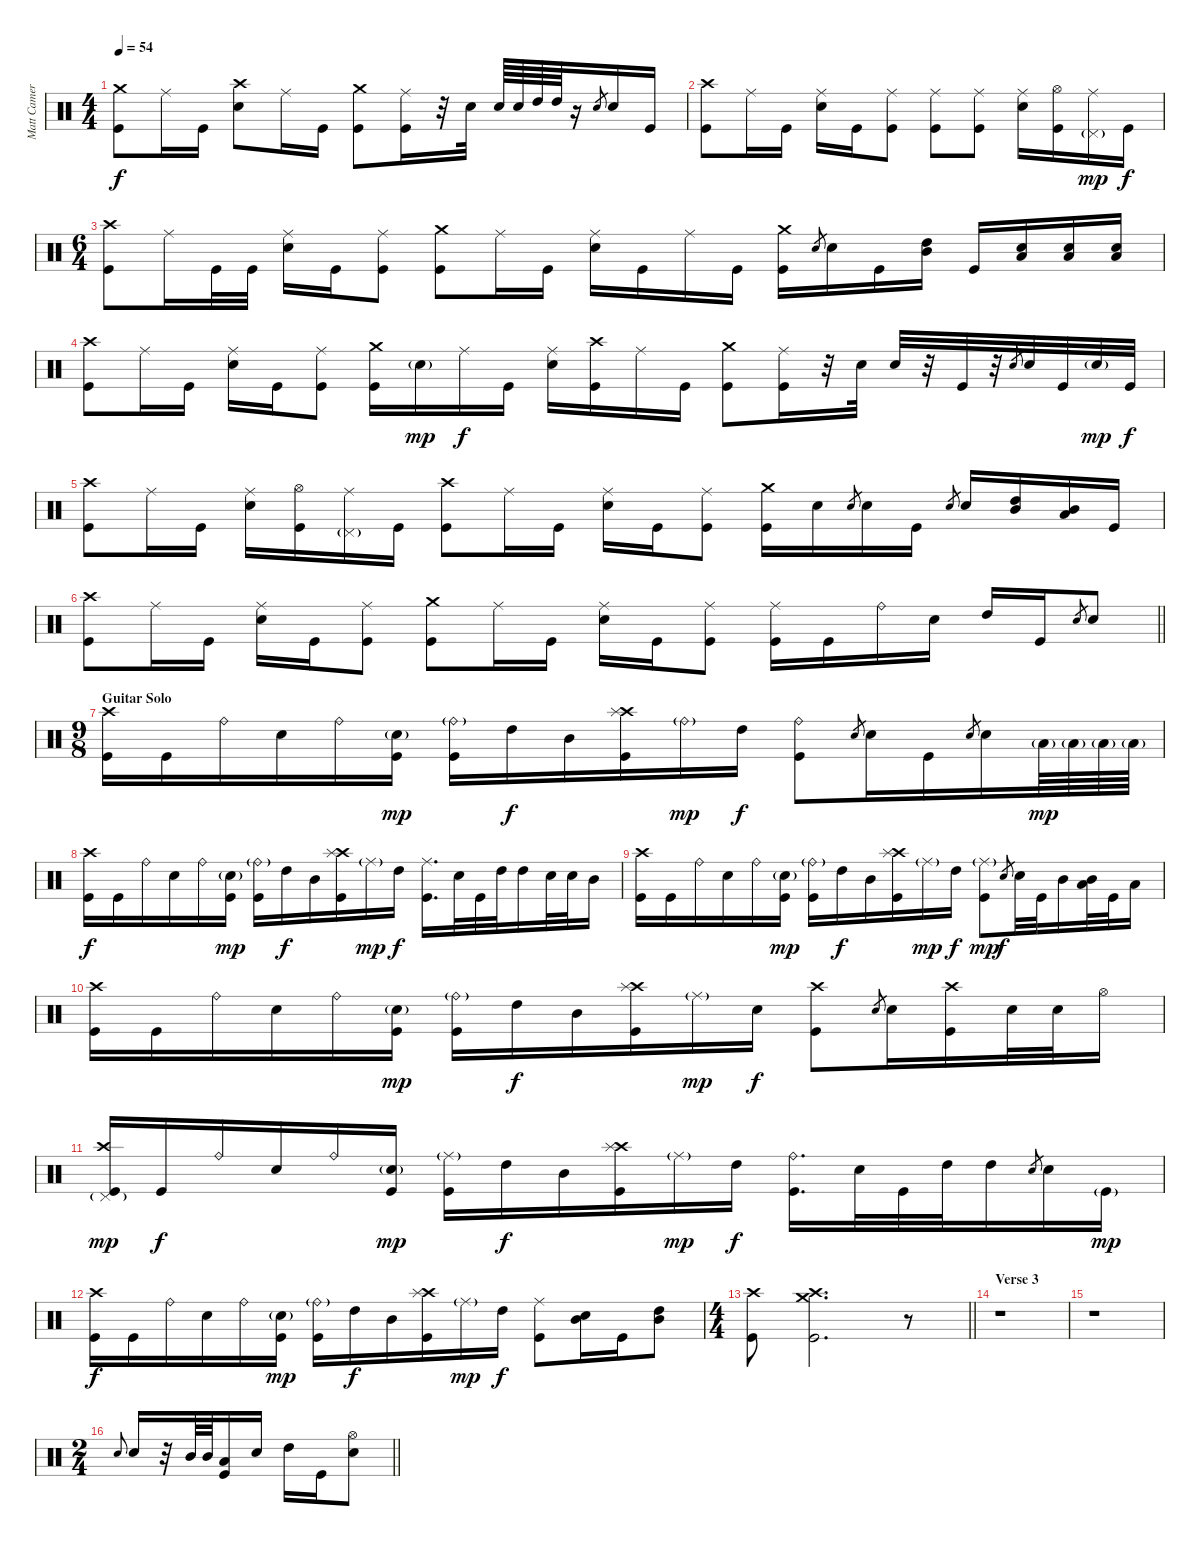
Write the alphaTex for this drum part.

\track ("Matt Cameron" "Matt Camer") {instrument percussion}
\staff {score}
\articulation defaults
\ts (4 4)
\tempo 54
\clef neutral
\ks c
("Crash medium (hit)" "Kick (hit)").8{dy f} "Ride (middle)".16 "Kick (hit)".16 ("Crash high (hit)" "Electric Snare (hit)").8 "Ride (middle)".16 "Kick (hit)".16 ("Crash medium (hit)" "Kick (hit)").8 ("Ride (middle)" "Kick (hit)").16 r.32 "Electric Snare (hit)".32 "Electric Snare (hit)".64 "Electric Snare (hit)".64 "High Tom (hit)".64 "High Tom (hit)".64 r.16 "Electric Snare (hit)".8{gr} "Electric Snare (hit)".16 "Kick (hit)".16 |
("Crash high (hit)" "Kick (hit)").8 "Ride (middle)".16 "Kick (hit)".16 ("Ride (middle)" "Electric Snare (hit)").16 "Kick (hit)".16 ("Ride (middle)" "Kick (hit)").8 ("Ride (middle)" "Kick (hit)").8 ("Ride (middle)" "Kick (hit)").8 ("Ride (middle)" "Electric Snare (hit)").16 ("Hi-Hat (open)" "Kick (hit)").16 ("Ride (middle)" "Pedal Hi-Hat (hit)"{g}).16{dy mp} "Kick (hit)".16{dy f} |
\ts (6 4)
("Crash high (hit)" "Kick (hit)").8 "Ride (middle)".16 "Kick (hit)".32 "Kick (hit)".32 ("Ride (middle)" "Electric Snare (hit)").16 "Kick (hit)".16 ("Ride (middle)" "Kick (hit)").8 ("Crash medium (hit)" "Kick (hit)").8 "Ride (middle)".16 "Kick (hit)".16 ("Ride (middle)" "Electric Snare (hit)").16 "Kick (hit)".16 "Ride (middle)".16 "Kick (hit)".16 ("Crash medium (hit)" "Kick (hit)").16 "Electric Snare (hit)".8{gr} "Electric Snare (hit)".16 "Kick (hit)".16 ("High Tom (hit)" "Mid Tom (hit)").16 "Kick (hit)".16 ("Electric Snare (hit)" "Low Floor Tom (hit)").16 ("Electric Snare (hit)" "Low Floor Tom (hit)").16 ("Electric Snare (hit)" "Low Floor Tom (hit)").16 |
("Crash high (hit)" "Kick (hit)").8 "Ride (middle)".16 "Kick (hit)".16 ("Ride (middle)" "Electric Snare (hit)").16 "Kick (hit)".16 ("Ride (middle)" "Kick (hit)").8 ("Crash medium (hit)" "Kick (hit)").16 "Electric Snare (hit)"{g}.16{dy mp} "Ride (middle)".16{dy f} "Kick (hit)".16 ("Ride (middle)" "Electric Snare (hit)").16 ("Crash high (hit)" "Kick (hit)").16 "Ride (middle)".16 "Kick (hit)".16 ("Crash medium (hit)" "Kick (hit)").8 ("Ride (middle)" "Kick (hit)").16 r.32 "Electric Snare (hit)".32 "Electric Snare (hit)".32 r.32 "Kick (hit)".32 r.32 "Electric Snare (hit)".8{gr} "Electric Snare (hit)".32 "Kick (hit)".32 "Electric Snare (hit)"{g}.32{dy mp} "Kick (hit)".32{dy f} |
("Crash high (hit)" "Kick (hit)").8 "Ride (middle)".16 "Kick (hit)".16 ("Ride (middle)" "Electric Snare (hit)").16 ("Hi-Hat (open)" "Kick (hit)").16 ("Ride (middle)" "Pedal Hi-Hat (hit)"{g}).16 "Kick (hit)".16 ("Crash high (hit)" "Kick (hit)").8 "Ride (middle)".16 "Kick (hit)".16 ("Ride (middle)" "Electric Snare (hit)").16 "Kick (hit)".16 ("Ride (middle)" "Kick (hit)").8 ("Crash medium (hit)" "Kick (hit)").16 "Electric Snare (hit)".16 "Electric Snare (hit)".8{gr} "Electric Snare (hit)".16 "Kick (hit)".16 "Electric Snare (hit)".8{gr} "Electric Snare (hit)".16 ("High Tom (hit)" "Mid Tom (hit)").16 ("Mid Tom (hit)" "Low Floor Tom (hit)").16 "Kick (hit)".16 |
\barLineRight lightlight
("Crash high (hit)" "Kick (hit)").8 "Ride (middle)".16 "Kick (hit)".16 ("Ride (middle)" "Electric Snare (hit)").16 "Kick (hit)".16 ("Ride (middle)" "Kick (hit)").8 ("Crash medium (hit)" "Kick (hit)").8 "Ride (middle)".16 "Kick (hit)".16 ("Ride (middle)" "Electric Snare (hit)").16 "Kick (hit)".16 ("Ride (middle)" "Kick (hit)").8 ("Ride (middle)" "Kick (hit)").16 "Kick (hit)".16 "Ride (bell)".16 "Electric Snare (hit)".16 "High Tom (hit)".16 "Kick (hit)".16 "Electric Snare (hit)".8{gr} "Electric Snare (hit)".8 |
\ts (9 8)
\section ("" "Guitar Solo")
("Crash high (hit)" "Kick (hit)").16 "Kick (hit)".16 "Ride (bell)".16 "Electric Snare (hit)".16 "Ride (bell)".16 ("Electric Snare (hit)"{g} "Kick (hit)").16{dy mp} ("Ride (bell)"{g} "Kick (hit)").16 "High Tom (hit)".16{dy f} "Mid Tom (hit)".16 ("Crash high (hit)" "Splash (hit)" "Kick (hit)").16 "Ride (bell)"{g}.16{dy mp} "High Tom (hit)".16{dy f} ("Ride (bell)" "Kick (hit)").8 "Electric Snare (hit)".8{gr} "Electric Snare (hit)".16 "Kick (hit)".16 "Electric Snare (hit)".8{gr} "Electric Snare (hit)".16 "Low Floor Tom (hit)"{g}.64{dy mp} "Low Floor Tom (hit)"{g}.64 "Low Floor Tom (hit)"{g}.64 "Low Floor Tom (hit)"{g}.64 |
("Crash high (hit)" "Kick (hit)").16{dy f} "Kick (hit)".16 "Ride (bell)".16 "Electric Snare (hit)".16 "Ride (bell)".16 ("Electric Snare (hit)"{g} "Kick (hit)").16{dy mp} ("Ride (bell)"{g} "Kick (hit)").16 "High Tom (hit)".16{dy f} "Mid Tom (hit)".16 ("Crash high (hit)" "Splash (hit)" "Kick (hit)").16 "Ride (middle)"{g}.16{dy mp} "High Tom (hit)".16{dy f} ("Ride (middle)" "Kick (hit)").16{d} "Electric Snare (hit)".32 "Kick (hit)".32 "High Tom (hit)".32 "High Tom (hit)".16 "Electric Snare (hit)".32 "Electric Snare (hit)".32 "Mid Tom (hit)".16 |
("Crash high (hit)" "Kick (hit)").16 "Kick (hit)".16 "Ride (bell)".16 "Electric Snare (hit)".16 "Ride (bell)".16 ("Electric Snare (hit)"{g} "Kick (hit)").16{dy mp} ("Ride (bell)"{g} "Kick (hit)").16 "High Tom (hit)".16{dy f} "Mid Tom (hit)".16 ("Crash high (hit)" "Splash (hit)" "Kick (hit)").16 "Ride (middle)"{g}.16{dy mp} "High Tom (hit)".16{dy f} ("Ride (middle)"{g} "Kick (hit)").8{dy mp} "Electric Snare (hit)".8{gr dy f} "Electric Snare (hit)".32 "Kick (hit)".32 "Mid Tom (hit)".16 ("Mid Tom (hit)" "Low Floor Tom (hit)").32 "Kick (hit)".32 "Low Floor Tom (hit)".16 |
("Crash high (hit)" "Kick (hit)").16 "Kick (hit)".16 "Ride (bell)".16 "Electric Snare (hit)".16 "Ride (bell)".16 ("Electric Snare (hit)"{g} "Kick (hit)").16{dy mp} ("Ride (bell)"{g} "Kick (hit)").16 "High Tom (hit)".16{dy f} "Mid Tom (hit)".16 ("Crash high (hit)" "Splash (hit)" "Kick (hit)").16 "Ride (middle)"{g}.16{dy mp} "Electric Snare (hit)".16{dy f} ("Crash high (hit)" "Kick (hit)").8 "Electric Snare (hit)".8{gr} "Electric Snare (hit)".16 ("Crash high (hit)" "Kick (hit)").16 "Electric Snare (hit)".32 "Electric Snare (hit)".32 "Hi-Hat (open)".16 |
("Crash high (hit)" "Pedal Hi-Hat (hit)"{g} "Kick (hit)").16{dy mp} "Kick (hit)".16{dy f} "Ride (bell)".16 "Electric Snare (hit)".16 "Ride (bell)".16 ("Electric Snare (hit)"{g} "Kick (hit)").16{dy mp} ("Ride (middle)"{g} "Kick (hit)").16 "High Tom (hit)".16{dy f} "Mid Tom (hit)".16 ("Crash high (hit)" "Splash (hit)" "Kick (hit)").16 "Ride (middle)"{g}.16{dy mp} "High Tom (hit)".16{dy f} ("Ride (bell)" "Kick (hit)").16{d} "Electric Snare (hit)".32 "Kick (hit)".32 "High Tom (hit)".32 "High Tom (hit)".16 "Electric Snare (hit)".8{gr} "Electric Snare (hit)".16 "Kick (hit)"{g}.16{dy mp} |
("Crash high (hit)" "Kick (hit)").16{dy f} "Kick (hit)".16 "Ride (bell)".16 "Electric Snare (hit)".16 "Ride (bell)".16 ("Electric Snare (hit)"{g} "Kick (hit)").16{dy mp} ("Ride (bell)"{g} "Kick (hit)").16 "High Tom (hit)".16{dy f} "Mid Tom (hit)".16 ("Crash high (hit)" "Splash (hit)" "Kick (hit)").16 "Ride (middle)"{g}.16{dy mp} "High Tom (hit)".16{dy f} ("Ride (middle)" "Kick (hit)").8 ("Electric Snare (hit)" "Mid Tom (hit)").16 "Kick (hit)".16 ("High Tom (hit)" "Mid Tom (hit)").8 |
\ts (4 4)
\barLineRight lightlight
("Crash high (hit)" "Kick (hit)").8 ("Crash high (hit)" "Crash medium (hit)" "Kick (hit)").2{d} r.8 |
\section ("" "Verse 3")
r.1 |
r.1 |
\ts (2 4)
\barLineRight lightlight "Electric Snare (hit)".8{gr onbeat} "Electric Snare (hit)".16
r.32 "Mid Tom (hit)".64 "Mid Tom (hit)".64 ("Low Floor Tom (hit)" "Kick (hit)").16 "Electric Snare (hit)".16 "High Tom (hit)".16 "Kick (hit)".16 ("Hi-Hat (open)" "Electric Snare (hit)").8
